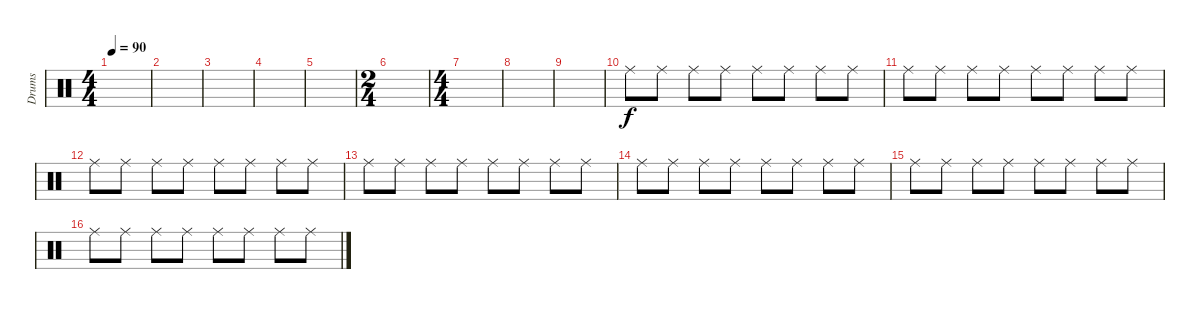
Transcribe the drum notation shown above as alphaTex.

\track ("Drums" "Drums") {instrument percussion}
\staff {score}
\articulation defaults
\ts (4 4)
\tempo 90
\clef neutral
\ks c
|
|
|
|
|
\ts (2 4)
|
\ts (4 4)
|
|
|
"Ride (middle)".8 "Ride (middle)".8 "Ride (middle)".8 "Ride (middle)".8 "Ride (middle)".8 "Ride (middle)".8 "Ride (middle)".8 "Ride (middle)".8 |
"Ride (middle)".8 "Ride (middle)".8 "Ride (middle)".8 "Ride (middle)".8 "Ride (middle)".8 "Ride (middle)".8 "Ride (middle)".8 "Ride (middle)".8 |
"Ride (middle)".8 "Ride (middle)".8 "Ride (middle)".8 "Ride (middle)".8 "Ride (middle)".8 "Ride (middle)".8 "Ride (middle)".8 "Ride (middle)".8 |
"Ride (middle)".8 "Ride (middle)".8 "Ride (middle)".8 "Ride (middle)".8 "Ride (middle)".8 "Ride (middle)".8 "Ride (middle)".8 "Ride (middle)".8 |
"Ride (middle)".8 "Ride (middle)".8 "Ride (middle)".8 "Ride (middle)".8 "Ride (middle)".8 "Ride (middle)".8 "Ride (middle)".8 "Ride (middle)".8 |
"Ride (middle)".8 "Ride (middle)".8 "Ride (middle)".8 "Ride (middle)".8 "Ride (middle)".8 "Ride (middle)".8 "Ride (middle)".8 "Ride (middle)".8 |
"Ride (middle)".8 "Ride (middle)".8 "Ride (middle)".8 "Ride (middle)".8 "Ride (middle)".8 "Ride (middle)".8 "Ride (middle)".8 "Ride (middle)".8
